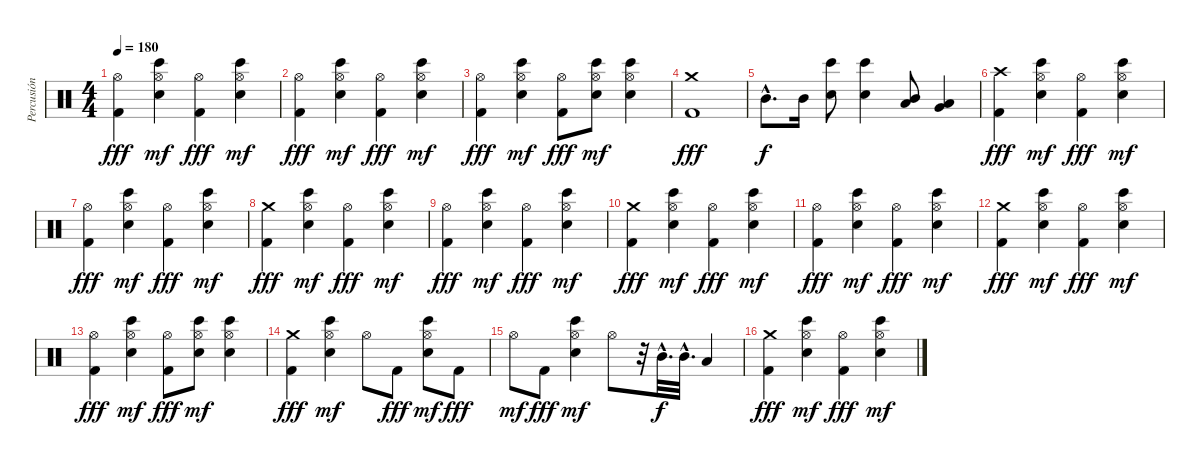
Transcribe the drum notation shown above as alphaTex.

\track ("Percusión" "Percusión") {instrument percussion}
\staff {score}
\articulation defaults
\ts (4 4)
\tempo 180
\clef neutral
\ks c
("Hi-Hat (open)" "Kick (hit) 2").4{dy fff} ("Hi-Hat (open)" "Bongo High (hit)" "Snare (hit) 2").4{dy mf} ("Hi-Hat (open)" "Kick (hit) 2").4{dy fff} ("Hi-Hat (open)" "Bongo High (hit)" "Snare (hit) 2").4{dy mf} |
("Hi-Hat (open)" "Kick (hit) 2").4{dy fff} ("Hi-Hat (open)" "Bongo High (hit)" "Snare (hit) 2").4{dy mf} ("Hi-Hat (open)" "Kick (hit) 2").4{dy fff} ("Hi-Hat (open)" "Bongo High (hit)" "Snare (hit) 2").4{dy mf} |
("Hi-Hat (open)" "Kick (hit) 2").4{dy fff} ("Hi-Hat (open)" "Bongo High (hit)" "Snare (hit) 2").4{dy mf} ("Hi-Hat (open)" "Kick (hit) 2").8{dy fff} ("Hi-Hat (open)" "Bongo High (hit)" "Snare (hit) 2").8{dy mf} ("Hi-Hat (open)" "Bongo High (hit)" "Snare (hit) 2").4 |
("Crash medium (hit)" "Kick (hit) 2").1{dy fff} |
"Mid Tom (hit)"{hac}.8{d dy f} "Mid Tom (hit)".16 ("Bongo High (hit)" "Snare (hit) 2").8 ("Bongo High (hit)" "Snare (hit) 2").4 ("Mid Tom (hit)" "Low Tom (hit)").8 ("Low Tom (hit)" "Very Low Tom (hit)").4 |
("Crash high (hit)" "Kick (hit) 2").4{dy fff} ("Hi-Hat (open)" "Bongo High (hit)" "Snare (hit) 2").4{dy mf} ("Hi-Hat (open)" "Kick (hit) 2").4{dy fff} ("Hi-Hat (open)" "Bongo High (hit)" "Snare (hit) 2").4{dy mf} |
("Hi-Hat (open)" "Kick (hit) 2").4{dy fff} ("Hi-Hat (open)" "Bongo High (hit)" "Snare (hit) 2").4{dy mf} ("Hi-Hat (open)" "Kick (hit) 2").4{dy fff} ("Hi-Hat (open)" "Bongo High (hit)" "Snare (hit) 2").4{dy mf} |
("Crash medium (hit)" "Kick (hit) 2").4{dy fff} ("Hi-Hat (open)" "Bongo High (hit)" "Snare (hit) 2").4{dy mf} ("Hi-Hat (open)" "Kick (hit) 2").4{dy fff} ("Hi-Hat (open)" "Bongo High (hit)" "Snare (hit) 2").4{dy mf} |
("Hi-Hat (open)" "Kick (hit) 2").4{dy fff} ("Hi-Hat (open)" "Bongo High (hit)" "Snare (hit) 2").4{dy mf} ("Hi-Hat (open)" "Kick (hit) 2").4{dy fff} ("Hi-Hat (open)" "Bongo High (hit)" "Snare (hit) 2").4{dy mf} |
("Crash medium (hit)" "Kick (hit) 2").4{dy fff} ("Hi-Hat (open)" "Bongo High (hit)" "Snare (hit) 2").4{dy mf} ("Hi-Hat (open)" "Kick (hit) 2").4{dy fff} ("Hi-Hat (open)" "Bongo High (hit)" "Snare (hit) 2").4{dy mf} |
("Hi-Hat (open)" "Kick (hit) 2").4{dy fff} ("Hi-Hat (open)" "Bongo High (hit)" "Snare (hit) 2").4{dy mf} ("Hi-Hat (open)" "Kick (hit) 2").4{dy fff} ("Hi-Hat (open)" "Bongo High (hit)" "Snare (hit) 2").4{dy mf} |
("Crash medium (hit)" "Kick (hit) 2").4{dy fff} ("Hi-Hat (open)" "Bongo High (hit)" "Snare (hit) 2").4{dy mf} ("Hi-Hat (open)" "Kick (hit) 2").4{dy fff} ("Hi-Hat (open)" "Bongo High (hit)" "Snare (hit) 2").4{dy mf} |
("Hi-Hat (open)" "Kick (hit) 2").4{dy fff} ("Hi-Hat (open)" "Bongo High (hit)" "Snare (hit) 2").4{dy mf} ("Hi-Hat (open)" "Kick (hit) 2").8{dy fff} ("Hi-Hat (open)" "Bongo High (hit)" "Snare (hit) 2").8{dy mf} ("Hi-Hat (open)" "Bongo High (hit)" "Snare (hit) 2").4 |
("Crash medium (hit)" "Kick (hit) 2").4{dy fff} ("Hi-Hat (open)" "Bongo High (hit)" "Snare (hit) 2").4{dy mf} "Hi-Hat (open)".8 "Kick (hit) 2".8{dy fff} ("Hi-Hat (open)" "Bongo High (hit)" "Snare (hit) 2").8{dy mf} "Kick (hit) 2".8{dy fff} |
"Hi-Hat (open)".8{dy mf} "Kick (hit) 2".8{dy fff} ("Hi-Hat (open)" "Bongo High (hit)" "Snare (hit) 2").4{dy mf} "Hi-Hat (open)".8 r.32 "Mid Tom (hit)"{hac}.32{d dy f} "Mid Tom (hit)"{hac}.32{d} "Low Tom (hit)".4 |
("Crash medium (hit)" "Kick (hit) 2").4{dy fff} ("Hi-Hat (open)" "Bongo High (hit)" "Snare (hit) 2").4{dy mf} ("Hi-Hat (open)" "Kick (hit) 2").4{dy fff} ("Hi-Hat (open)" "Bongo High (hit)" "Snare (hit) 2").4{dy mf}
